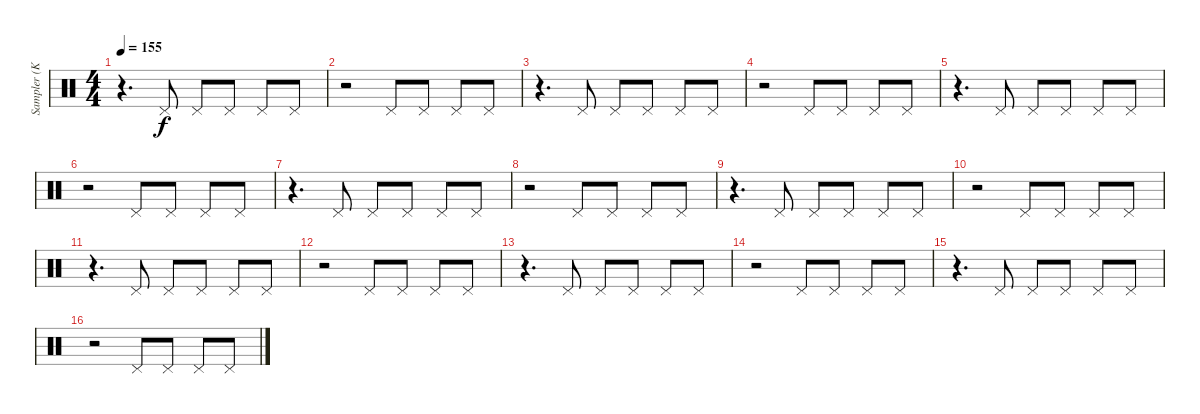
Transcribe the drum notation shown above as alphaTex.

\track ("Sampler (Korg Radias)" "Sampler (K") {instrument percussion}
\staff {score}
\articulation defaults
\ts (4 4)
\tempo 155
\clef neutral
\ks c
r.4{d dy f} "Pedal Hi-Hat (hit)".8 "Pedal Hi-Hat (hit)".8 "Pedal Hi-Hat (hit)".8 "Pedal Hi-Hat (hit)".8 "Pedal Hi-Hat (hit)".8 |
r.2 "Pedal Hi-Hat (hit)".8 "Pedal Hi-Hat (hit)".8 "Pedal Hi-Hat (hit)".8 "Pedal Hi-Hat (hit)".8 |
r.4{d} "Pedal Hi-Hat (hit)".8 "Pedal Hi-Hat (hit)".8 "Pedal Hi-Hat (hit)".8 "Pedal Hi-Hat (hit)".8 "Pedal Hi-Hat (hit)".8 |
r.2 "Pedal Hi-Hat (hit)".8 "Pedal Hi-Hat (hit)".8 "Pedal Hi-Hat (hit)".8 "Pedal Hi-Hat (hit)".8 |
r.4{d} "Pedal Hi-Hat (hit)".8 "Pedal Hi-Hat (hit)".8 "Pedal Hi-Hat (hit)".8 "Pedal Hi-Hat (hit)".8 "Pedal Hi-Hat (hit)".8 |
r.2 "Pedal Hi-Hat (hit)".8 "Pedal Hi-Hat (hit)".8 "Pedal Hi-Hat (hit)".8 "Pedal Hi-Hat (hit)".8 |
r.4{d} "Pedal Hi-Hat (hit)".8 "Pedal Hi-Hat (hit)".8 "Pedal Hi-Hat (hit)".8 "Pedal Hi-Hat (hit)".8 "Pedal Hi-Hat (hit)".8 |
r.2 "Pedal Hi-Hat (hit)".8 "Pedal Hi-Hat (hit)".8 "Pedal Hi-Hat (hit)".8 "Pedal Hi-Hat (hit)".8 |
r.4{d} "Pedal Hi-Hat (hit)".8 "Pedal Hi-Hat (hit)".8 "Pedal Hi-Hat (hit)".8 "Pedal Hi-Hat (hit)".8 "Pedal Hi-Hat (hit)".8 |
r.2 "Pedal Hi-Hat (hit)".8 "Pedal Hi-Hat (hit)".8 "Pedal Hi-Hat (hit)".8 "Pedal Hi-Hat (hit)".8 |
r.4{d} "Pedal Hi-Hat (hit)".8 "Pedal Hi-Hat (hit)".8 "Pedal Hi-Hat (hit)".8 "Pedal Hi-Hat (hit)".8 "Pedal Hi-Hat (hit)".8 |
r.2 "Pedal Hi-Hat (hit)".8 "Pedal Hi-Hat (hit)".8 "Pedal Hi-Hat (hit)".8 "Pedal Hi-Hat (hit)".8 |
r.4{d} "Pedal Hi-Hat (hit)".8 "Pedal Hi-Hat (hit)".8 "Pedal Hi-Hat (hit)".8 "Pedal Hi-Hat (hit)".8 "Pedal Hi-Hat (hit)".8 |
r.2 "Pedal Hi-Hat (hit)".8 "Pedal Hi-Hat (hit)".8 "Pedal Hi-Hat (hit)".8 "Pedal Hi-Hat (hit)".8 |
r.4{d} "Pedal Hi-Hat (hit)".8 "Pedal Hi-Hat (hit)".8 "Pedal Hi-Hat (hit)".8 "Pedal Hi-Hat (hit)".8 "Pedal Hi-Hat (hit)".8 |
r.2 "Pedal Hi-Hat (hit)".8 "Pedal Hi-Hat (hit)".8 "Pedal Hi-Hat (hit)".8 "Pedal Hi-Hat (hit)".8
